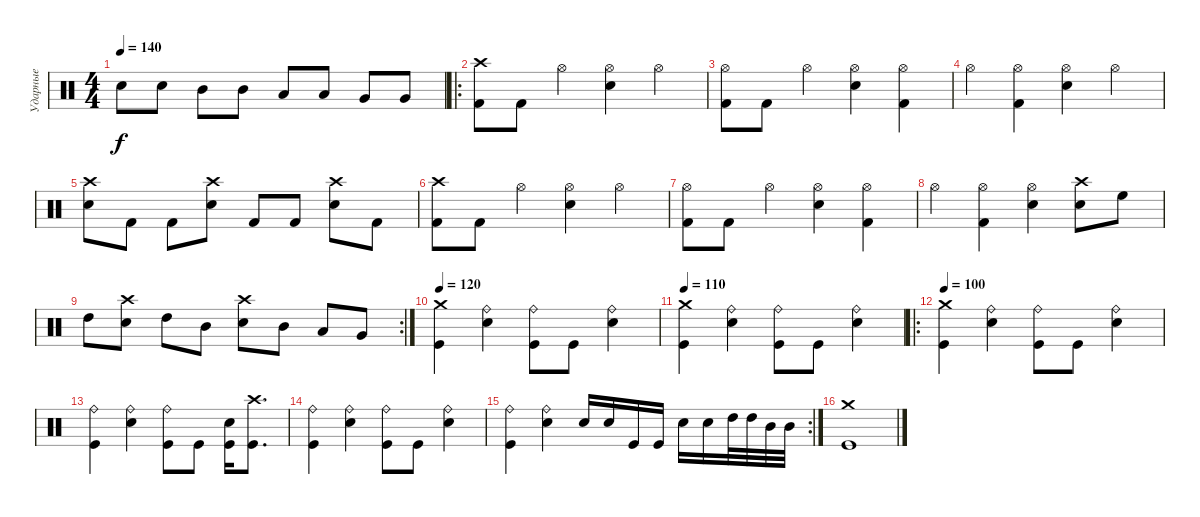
\track ("Ударные" "Ударные") {instrument percussion}
\staff {score}
\articulation defaults
\ts (4 4)
\tempo 140
\clef neutral
\ks c "Snare (hit)"{t}.8{dy f} "Snare (hit) 2".8 "Mid Tom (hit)".8 "Mid Tom (hit)".8 "Low Tom (hit)".8 "Low Tom (hit)".8 "Very Low Tom (hit)".8 "Very Low Tom (hit)".8
|
\ro
("Crash high (hit)" "Kick (hit) 2").8 "Kick (hit) 2".8 "Hi-Hat (open)".4 ("Hi-Hat (open)" "Snare (hit) 2").4 "Hi-Hat (open)".4 |
("Hi-Hat (open)" "Kick (hit) 2").8 "Kick (hit) 2".8 "Hi-Hat (open)".4 ("Hi-Hat (open)" "Snare (hit) 2").4 ("Hi-Hat (open)" "Kick (hit) 2").4 |
"Hi-Hat (open)".4 ("Hi-Hat (open)" "Kick (hit) 2").4 ("Hi-Hat (open)" "Snare (hit) 2").4 "Hi-Hat (open)".4 |
("Crash high (hit)" "Snare (hit) 2").8 "Kick (hit) 2".8 "Kick (hit) 2".8 ("Crash high (hit)" "Snare (hit) 2").8 "Kick (hit) 2".8 "Kick (hit) 2".8 ("Crash high (hit)" "Snare (hit) 2").8 "Kick (hit) 2".8 |
("Crash high (hit)" "Kick (hit) 2").8 "Kick (hit) 2".8 "Hi-Hat (open)".4 ("Hi-Hat (open)" "Snare (hit) 2").4 "Hi-Hat (open)".4 |
("Hi-Hat (open)" "Kick (hit) 2").8 "Kick (hit) 2".8 "Hi-Hat (open)".4 ("Hi-Hat (open)" "Snare (hit) 2").4 ("Hi-Hat (open)" "Kick (hit) 2").4 |
"Hi-Hat (open)".4 ("Hi-Hat (open)" "Kick (hit) 2").4 ("Hi-Hat (open)" "Snare (hit) 2").4 ("Crash high (hit)" "Snare (hit) 2").8 "High Floor Tom (hit)".8 |
\rc 2 "High Tom (hit)".8
("Crash high (hit)" "Snare (hit) 2").8 "High Tom (hit)".8 "Mid Tom (hit)".8 ("Crash high (hit)" "Snare (hit) 2").8 "Mid Tom (hit)".8 "Low Tom (hit)".8 "Very Low Tom (hit)".8 |
\tempo 120
("Crash medium (hit)" "Kick (hit)").4 ("Ride (bell)" "Electric Snare (hit)").4 ("Ride (bell)" "Kick (hit)").8 "Kick (hit)".8 ("Ride (bell)" "Electric Snare (hit)").4 |
\tempo 110
("Crash medium (hit)" "Kick (hit)").4 ("Ride (bell)" "Electric Snare (hit)").4 ("Ride (bell)" "Kick (hit)").8 "Kick (hit)".8 ("Ride (bell)" "Electric Snare (hit)").4 |
\ro
\tempo 100
("Crash medium (hit)" "Kick (hit)").4 ("Ride (bell)" "Electric Snare (hit)").4 ("Ride (bell)" "Kick (hit)").8 "Kick (hit)".8 ("Ride (bell)" "Electric Snare (hit)").4 |
("Ride (bell)" "Kick (hit)").4 ("Ride (bell)" "Electric Snare (hit)").4 ("Ride (bell)" "Kick (hit)").8 "Kick (hit)".8 ("Electric Snare (hit)" "Kick (hit)").16 ("Crash high (hit)" "Kick (hit)").8{d} |
("Ride (bell)" "Kick (hit)").4 ("Ride (bell)" "Electric Snare (hit)").4 ("Ride (bell)" "Kick (hit)").8 "Kick (hit)".8 ("Ride (bell)" "Electric Snare (hit)").4 |
\rc 2
("Ride (bell)" "Kick (hit)").4 ("Ride (bell)" "Electric Snare (hit)").4 "Electric Snare (hit)".16 "Electric Snare (hit)".16 "Kick (hit)".16 "Kick (hit)".16 "Electric Snare (hit)".16 "Electric Snare (hit)".16 "High Tom (hit)".32 "High Tom (hit)".32 "Mid Tom (hit)".32 "Mid Tom (hit)".32 |
("Crash medium (hit)" "Kick (hit)").1
